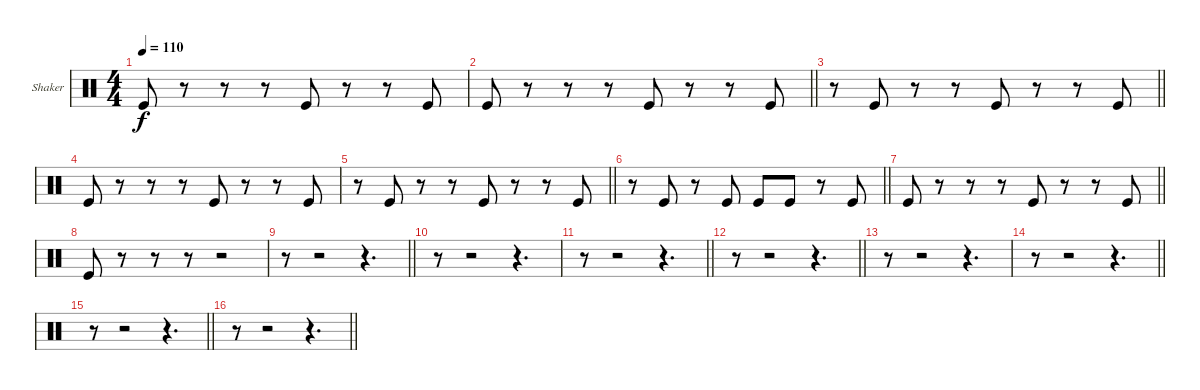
\bracketExtendMode groupsimilarinstruments
\firstSystemTrackNameOrientation horizontal
\otherSystemsTrackNameOrientation horizontal
\track ("Shaker" "Shaker") {instrument percussion}
\staff {score}
\articulation defaults
\ts (4 4)
\tempo 110
\clef neutral
\ks c "Kick (hit)".8{dy f}
r.8 r.8 r.8 "Kick (hit)".8 r.8 r.8 "Kick (hit)".8 |
\barLineRight lightlight "Kick (hit)".8
r.8 r.8 r.8 "Kick (hit)".8 r.8 r.8 "Kick (hit)".8 |
\barLineRight lightlight
r.8 "Kick (hit)".8 r.8 r.8 "Kick (hit)".8 r.8 r.8 "Kick (hit)".8 |
"Kick (hit)".8 r.8 r.8 r.8 "Kick (hit)".8 r.8 r.8 "Kick (hit)".8 |
\barLineRight lightlight
r.8 "Kick (hit)".8 r.8 r.8 "Kick (hit)".8 r.8 r.8 "Kick (hit)".8 |
\barLineRight lightlight
r.8 "Kick (hit)".8 r.8 "Kick (hit)".8 "Kick (hit)".8 "Kick (hit)".8 r.8 "Kick (hit)".8 |
\barLineRight lightlight "Kick (hit)".8
r.8 r.8 r.8 "Kick (hit)".8 r.8 r.8 "Kick (hit)".8 |
"Kick (hit)".8 r.8 r.8 r.8 r.2 |
\barLineRight lightlight
r.8 r.2 r.4{d} |
r.8 r.2 r.4{d} |
\barLineRight lightlight
r.8 r.2 r.4{d} |
\barLineRight lightlight
r.8 r.2 r.4{d} |
r.8 r.2 r.4{d} |
\barLineRight lightlight
r.8 r.2 r.4{d} |
\barLineRight lightlight
r.8 r.2 r.4{d} |
\barLineRight lightlight
r.8 r.2 r.4{d}
